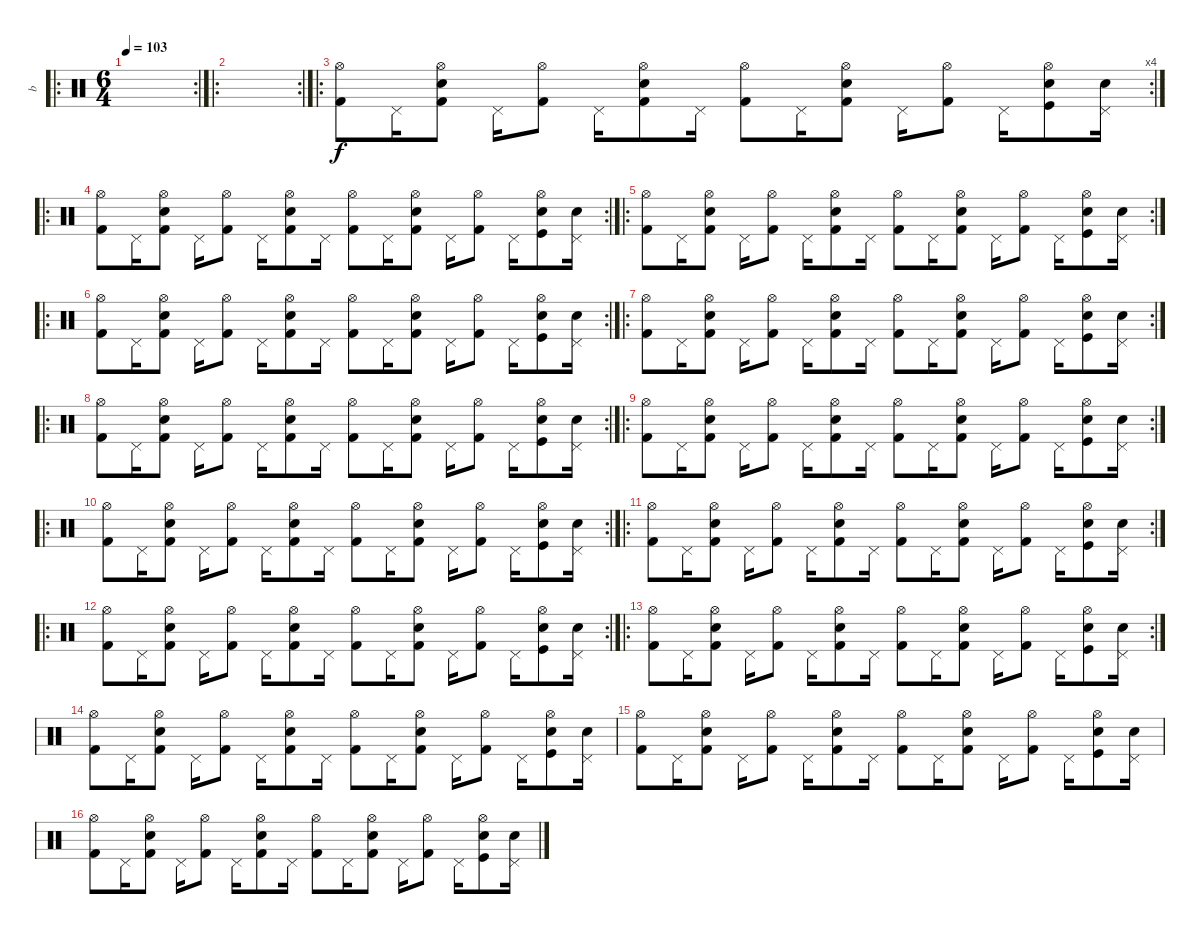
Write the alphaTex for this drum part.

\track ("b" "b") {instrument percussion}
\staff {score}
\articulation defaults
\ro
\rc 2
\ts (6 4)
\tempo 103
\clef neutral
\ks c
|
\ro
\rc 2
|
\ro
\rc 4
("Hi-Hat (open)" "Kick (hit) 2").8 "Pedal Hi-Hat (hit)".16 ("Hi-Hat (open)" "Electric Snare (hit)" "Kick (hit) 2").8 "Pedal Hi-Hat (hit)".16 ("Hi-Hat (open)" "Kick (hit) 2").8 "Pedal Hi-Hat (hit)".16 ("Hi-Hat (open)" "Electric Snare (hit)" "Kick (hit) 2").8 "Pedal Hi-Hat (hit)".16 ("Hi-Hat (open)" "Kick (hit) 2").8 "Pedal Hi-Hat (hit)".16 ("Hi-Hat (open)" "Electric Snare (hit)" "Kick (hit) 2").8 "Pedal Hi-Hat (hit)".16 ("Hi-Hat (open)" "Kick (hit) 2").8 "Pedal Hi-Hat (hit)".16 ("Hi-Hat (open)" "Electric Snare (hit)" "Kick (hit)").8 ("Pedal Hi-Hat (hit)" "Electric Snare (hit)").16 |
\ro
\rc 2
("Hi-Hat (open)" "Kick (hit) 2").8 "Pedal Hi-Hat (hit)".16 ("Hi-Hat (open)" "Electric Snare (hit)" "Kick (hit) 2").8 "Pedal Hi-Hat (hit)".16 ("Hi-Hat (open)" "Kick (hit) 2").8 "Pedal Hi-Hat (hit)".16 ("Hi-Hat (open)" "Electric Snare (hit)" "Kick (hit) 2").8 "Pedal Hi-Hat (hit)".16 ("Hi-Hat (open)" "Kick (hit) 2").8 "Pedal Hi-Hat (hit)".16 ("Hi-Hat (open)" "Electric Snare (hit)" "Kick (hit) 2").8 "Pedal Hi-Hat (hit)".16 ("Hi-Hat (open)" "Kick (hit) 2").8 "Pedal Hi-Hat (hit)".16 ("Hi-Hat (open)" "Electric Snare (hit)" "Kick (hit)").8 ("Pedal Hi-Hat (hit)" "Electric Snare (hit)").16 |
\ro
\rc 2
("Hi-Hat (open)" "Kick (hit) 2").8 "Pedal Hi-Hat (hit)".16 ("Hi-Hat (open)" "Electric Snare (hit)" "Kick (hit) 2").8 "Pedal Hi-Hat (hit)".16 ("Hi-Hat (open)" "Kick (hit) 2").8 "Pedal Hi-Hat (hit)".16 ("Hi-Hat (open)" "Electric Snare (hit)" "Kick (hit) 2").8 "Pedal Hi-Hat (hit)".16 ("Hi-Hat (open)" "Kick (hit) 2").8 "Pedal Hi-Hat (hit)".16 ("Hi-Hat (open)" "Electric Snare (hit)" "Kick (hit) 2").8 "Pedal Hi-Hat (hit)".16 ("Hi-Hat (open)" "Kick (hit) 2").8 "Pedal Hi-Hat (hit)".16 ("Hi-Hat (open)" "Electric Snare (hit)" "Kick (hit)").8 ("Pedal Hi-Hat (hit)" "Electric Snare (hit)").16 |
\ro
\rc 2
("Hi-Hat (open)" "Kick (hit) 2").8 "Pedal Hi-Hat (hit)".16 ("Hi-Hat (open)" "Electric Snare (hit)" "Kick (hit) 2").8 "Pedal Hi-Hat (hit)".16 ("Hi-Hat (open)" "Kick (hit) 2").8 "Pedal Hi-Hat (hit)".16 ("Hi-Hat (open)" "Electric Snare (hit)" "Kick (hit) 2").8 "Pedal Hi-Hat (hit)".16 ("Hi-Hat (open)" "Kick (hit) 2").8 "Pedal Hi-Hat (hit)".16 ("Hi-Hat (open)" "Electric Snare (hit)" "Kick (hit) 2").8 "Pedal Hi-Hat (hit)".16 ("Hi-Hat (open)" "Kick (hit) 2").8 "Pedal Hi-Hat (hit)".16 ("Hi-Hat (open)" "Electric Snare (hit)" "Kick (hit)").8 ("Pedal Hi-Hat (hit)" "Electric Snare (hit)").16 |
\ro
\rc 2
("Hi-Hat (open)" "Kick (hit) 2").8 "Pedal Hi-Hat (hit)".16 ("Hi-Hat (open)" "Electric Snare (hit)" "Kick (hit) 2").8 "Pedal Hi-Hat (hit)".16 ("Hi-Hat (open)" "Kick (hit) 2").8 "Pedal Hi-Hat (hit)".16 ("Hi-Hat (open)" "Electric Snare (hit)" "Kick (hit) 2").8 "Pedal Hi-Hat (hit)".16 ("Hi-Hat (open)" "Kick (hit) 2").8 "Pedal Hi-Hat (hit)".16 ("Hi-Hat (open)" "Electric Snare (hit)" "Kick (hit) 2").8 "Pedal Hi-Hat (hit)".16 ("Hi-Hat (open)" "Kick (hit) 2").8 "Pedal Hi-Hat (hit)".16 ("Hi-Hat (open)" "Electric Snare (hit)" "Kick (hit)").8 ("Pedal Hi-Hat (hit)" "Electric Snare (hit)").16 |
\ro
\rc 2
("Hi-Hat (open)" "Kick (hit) 2").8 "Pedal Hi-Hat (hit)".16 ("Hi-Hat (open)" "Electric Snare (hit)" "Kick (hit) 2").8 "Pedal Hi-Hat (hit)".16 ("Hi-Hat (open)" "Kick (hit) 2").8 "Pedal Hi-Hat (hit)".16 ("Hi-Hat (open)" "Electric Snare (hit)" "Kick (hit) 2").8 "Pedal Hi-Hat (hit)".16 ("Hi-Hat (open)" "Kick (hit) 2").8 "Pedal Hi-Hat (hit)".16 ("Hi-Hat (open)" "Electric Snare (hit)" "Kick (hit) 2").8 "Pedal Hi-Hat (hit)".16 ("Hi-Hat (open)" "Kick (hit) 2").8 "Pedal Hi-Hat (hit)".16 ("Hi-Hat (open)" "Electric Snare (hit)" "Kick (hit)").8 ("Pedal Hi-Hat (hit)" "Electric Snare (hit)").16 |
\ro
\rc 2
("Hi-Hat (open)" "Kick (hit) 2").8 "Pedal Hi-Hat (hit)".16 ("Hi-Hat (open)" "Electric Snare (hit)" "Kick (hit) 2").8 "Pedal Hi-Hat (hit)".16 ("Hi-Hat (open)" "Kick (hit) 2").8 "Pedal Hi-Hat (hit)".16 ("Hi-Hat (open)" "Electric Snare (hit)" "Kick (hit) 2").8 "Pedal Hi-Hat (hit)".16 ("Hi-Hat (open)" "Kick (hit) 2").8 "Pedal Hi-Hat (hit)".16 ("Hi-Hat (open)" "Electric Snare (hit)" "Kick (hit) 2").8 "Pedal Hi-Hat (hit)".16 ("Hi-Hat (open)" "Kick (hit) 2").8 "Pedal Hi-Hat (hit)".16 ("Hi-Hat (open)" "Electric Snare (hit)" "Kick (hit)").8 ("Pedal Hi-Hat (hit)" "Electric Snare (hit)").16 |
\ro
\rc 2
("Hi-Hat (open)" "Kick (hit) 2").8 "Pedal Hi-Hat (hit)".16 ("Hi-Hat (open)" "Electric Snare (hit)" "Kick (hit) 2").8 "Pedal Hi-Hat (hit)".16 ("Hi-Hat (open)" "Kick (hit) 2").8 "Pedal Hi-Hat (hit)".16 ("Hi-Hat (open)" "Electric Snare (hit)" "Kick (hit) 2").8 "Pedal Hi-Hat (hit)".16 ("Hi-Hat (open)" "Kick (hit) 2").8 "Pedal Hi-Hat (hit)".16 ("Hi-Hat (open)" "Electric Snare (hit)" "Kick (hit) 2").8 "Pedal Hi-Hat (hit)".16 ("Hi-Hat (open)" "Kick (hit) 2").8 "Pedal Hi-Hat (hit)".16 ("Hi-Hat (open)" "Electric Snare (hit)" "Kick (hit)").8 ("Pedal Hi-Hat (hit)" "Electric Snare (hit)").16 |
\ro
\rc 2
("Hi-Hat (open)" "Kick (hit) 2").8 "Pedal Hi-Hat (hit)".16 ("Hi-Hat (open)" "Electric Snare (hit)" "Kick (hit) 2").8 "Pedal Hi-Hat (hit)".16 ("Hi-Hat (open)" "Kick (hit) 2").8 "Pedal Hi-Hat (hit)".16 ("Hi-Hat (open)" "Electric Snare (hit)" "Kick (hit) 2").8 "Pedal Hi-Hat (hit)".16 ("Hi-Hat (open)" "Kick (hit) 2").8 "Pedal Hi-Hat (hit)".16 ("Hi-Hat (open)" "Electric Snare (hit)" "Kick (hit) 2").8 "Pedal Hi-Hat (hit)".16 ("Hi-Hat (open)" "Kick (hit) 2").8 "Pedal Hi-Hat (hit)".16 ("Hi-Hat (open)" "Electric Snare (hit)" "Kick (hit)").8 ("Pedal Hi-Hat (hit)" "Electric Snare (hit)").16 |
\ro
\rc 2
("Hi-Hat (open)" "Kick (hit) 2").8 "Pedal Hi-Hat (hit)".16 ("Hi-Hat (open)" "Electric Snare (hit)" "Kick (hit) 2").8 "Pedal Hi-Hat (hit)".16 ("Hi-Hat (open)" "Kick (hit) 2").8 "Pedal Hi-Hat (hit)".16 ("Hi-Hat (open)" "Electric Snare (hit)" "Kick (hit) 2").8 "Pedal Hi-Hat (hit)".16 ("Hi-Hat (open)" "Kick (hit) 2").8 "Pedal Hi-Hat (hit)".16 ("Hi-Hat (open)" "Electric Snare (hit)" "Kick (hit) 2").8 "Pedal Hi-Hat (hit)".16 ("Hi-Hat (open)" "Kick (hit) 2").8 "Pedal Hi-Hat (hit)".16 ("Hi-Hat (open)" "Electric Snare (hit)" "Kick (hit)").8 ("Pedal Hi-Hat (hit)" "Electric Snare (hit)").16 |
\ro
\rc 2
("Hi-Hat (open)" "Kick (hit) 2").8 "Pedal Hi-Hat (hit)".16 ("Hi-Hat (open)" "Electric Snare (hit)" "Kick (hit) 2").8 "Pedal Hi-Hat (hit)".16 ("Hi-Hat (open)" "Kick (hit) 2").8 "Pedal Hi-Hat (hit)".16 ("Hi-Hat (open)" "Electric Snare (hit)" "Kick (hit) 2").8 "Pedal Hi-Hat (hit)".16 ("Hi-Hat (open)" "Kick (hit) 2").8 "Pedal Hi-Hat (hit)".16 ("Hi-Hat (open)" "Electric Snare (hit)" "Kick (hit) 2").8 "Pedal Hi-Hat (hit)".16 ("Hi-Hat (open)" "Kick (hit) 2").8 "Pedal Hi-Hat (hit)".16 ("Hi-Hat (open)" "Electric Snare (hit)" "Kick (hit)").8 ("Pedal Hi-Hat (hit)" "Electric Snare (hit)").16 |
("Hi-Hat (open)" "Kick (hit) 2").8 "Pedal Hi-Hat (hit)".16 ("Hi-Hat (open)" "Electric Snare (hit)" "Kick (hit) 2").8 "Pedal Hi-Hat (hit)".16 ("Hi-Hat (open)" "Kick (hit) 2").8 "Pedal Hi-Hat (hit)".16 ("Hi-Hat (open)" "Electric Snare (hit)" "Kick (hit) 2").8 "Pedal Hi-Hat (hit)".16 ("Hi-Hat (open)" "Kick (hit) 2").8 "Pedal Hi-Hat (hit)".16 ("Hi-Hat (open)" "Electric Snare (hit)" "Kick (hit) 2").8 "Pedal Hi-Hat (hit)".16 ("Hi-Hat (open)" "Kick (hit) 2").8 "Pedal Hi-Hat (hit)".16 ("Hi-Hat (open)" "Electric Snare (hit)" "Kick (hit)").8 ("Pedal Hi-Hat (hit)" "Electric Snare (hit)").16 |
("Hi-Hat (open)" "Kick (hit) 2").8 "Pedal Hi-Hat (hit)".16 ("Hi-Hat (open)" "Electric Snare (hit)" "Kick (hit) 2").8 "Pedal Hi-Hat (hit)".16 ("Hi-Hat (open)" "Kick (hit) 2").8 "Pedal Hi-Hat (hit)".16 ("Hi-Hat (open)" "Electric Snare (hit)" "Kick (hit) 2").8 "Pedal Hi-Hat (hit)".16 ("Hi-Hat (open)" "Kick (hit) 2").8 "Pedal Hi-Hat (hit)".16 ("Hi-Hat (open)" "Electric Snare (hit)" "Kick (hit) 2").8 "Pedal Hi-Hat (hit)".16 ("Hi-Hat (open)" "Kick (hit) 2").8 "Pedal Hi-Hat (hit)".16 ("Hi-Hat (open)" "Electric Snare (hit)" "Kick (hit)").8 ("Pedal Hi-Hat (hit)" "Electric Snare (hit)").16 |
("Hi-Hat (open)" "Kick (hit) 2").8 "Pedal Hi-Hat (hit)".16 ("Hi-Hat (open)" "Electric Snare (hit)" "Kick (hit) 2").8 "Pedal Hi-Hat (hit)".16 ("Hi-Hat (open)" "Kick (hit) 2").8 "Pedal Hi-Hat (hit)".16 ("Hi-Hat (open)" "Electric Snare (hit)" "Kick (hit) 2").8 "Pedal Hi-Hat (hit)".16 ("Hi-Hat (open)" "Kick (hit) 2").8 "Pedal Hi-Hat (hit)".16 ("Hi-Hat (open)" "Electric Snare (hit)" "Kick (hit) 2").8 "Pedal Hi-Hat (hit)".16 ("Hi-Hat (open)" "Kick (hit) 2").8 "Pedal Hi-Hat (hit)".16 ("Hi-Hat (open)" "Electric Snare (hit)" "Kick (hit)").8 ("Pedal Hi-Hat (hit)" "Electric Snare (hit)").16
